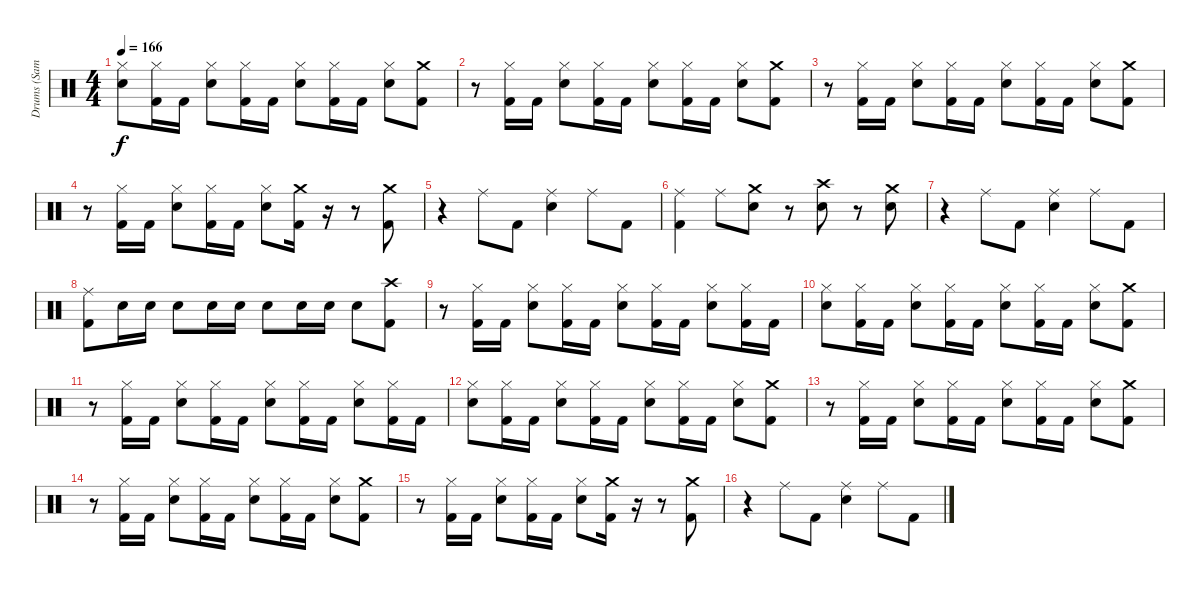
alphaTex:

\track ("Drums (Samuelson)" "Drums (Sam") {instrument percussion}
\staff
\articulation defaults
\ts (4 4)
\tempo 166
\clef neutral
\ks c
("Hi-Hat (closed)" "Electric Snare (hit)").8{dy f} ("Hi-Hat (closed)" "Kick (hit) 2").16 "Kick (hit) 2".16 ("Hi-Hat (closed)" "Electric Snare (hit)").8 ("Hi-Hat (closed)" "Kick (hit) 2").16 "Kick (hit) 2".16 ("Hi-Hat (closed)" "Electric Snare (hit)").8 ("Hi-Hat (closed)" "Kick (hit) 2").16 "Kick (hit) 2".16 ("Hi-Hat (closed)" "Electric Snare (hit)").8 ("Crash medium (hit)" "Kick (hit) 2").8 |
r.8 ("Hi-Hat (closed)" "Kick (hit) 2").16 "Kick (hit) 2".16 ("Hi-Hat (closed)" "Electric Snare (hit)").8 ("Hi-Hat (closed)" "Kick (hit) 2").16 "Kick (hit) 2".16 ("Hi-Hat (closed)" "Electric Snare (hit)").8 ("Hi-Hat (closed)" "Kick (hit) 2").16 "Kick (hit) 2".16 ("Hi-Hat (closed)" "Electric Snare (hit)").8 ("Crash medium (hit)" "Kick (hit) 2").8 |
r.8 ("Hi-Hat (closed)" "Kick (hit) 2").16 "Kick (hit) 2".16 ("Hi-Hat (closed)" "Electric Snare (hit)").8 ("Hi-Hat (closed)" "Kick (hit) 2").16 "Kick (hit) 2".16 ("Hi-Hat (closed)" "Electric Snare (hit)").8 ("Hi-Hat (closed)" "Kick (hit) 2").16 "Kick (hit) 2".16 ("Hi-Hat (closed)" "Electric Snare (hit)").8 ("Crash medium (hit)" "Kick (hit) 2").8 |
r.8 ("Hi-Hat (closed)" "Kick (hit) 2").16 "Kick (hit) 2".16 ("Hi-Hat (closed)" "Electric Snare (hit)").8 ("Hi-Hat (closed)" "Kick (hit) 2").16 "Kick (hit) 2".16 ("Hi-Hat (closed)" "Electric Snare (hit)").8 ("Crash medium (hit)" "Kick (hit) 2").16 r.16 r.8 ("Crash medium (hit)" "Kick (hit) 2").8 |
r.4 "Ride (middle)".8 "Kick (hit) 2".8 ("Ride (middle)" "Electric Snare (hit)").4 "Ride (middle)".8 "Kick (hit) 2".8 |
("Ride (middle)" "Kick (hit) 2").4 "Ride (middle)".8 ("Crash medium (hit)" "Electric Snare (hit)").8 r.8 ("Crash high (hit)" "Electric Snare (hit)").8 r.8 ("Crash medium (hit)" "Electric Snare (hit)").8 |
r.4 "Ride (middle)".8 "Kick (hit) 2".8 ("Ride (middle)" "Electric Snare (hit)").4 "Ride (middle)".8 "Kick (hit) 2".8 |
("Ride (middle)" "Kick (hit) 2").8 "Electric Snare (hit)".16 "Electric Snare (hit)".16 "Electric Snare (hit)".8 "Electric Snare (hit)".16 "Electric Snare (hit)".16 "Electric Snare (hit)".8 "Electric Snare (hit)".16 "Electric Snare (hit)".16 "Electric Snare (hit)".8 ("Crash high (hit)" "Kick (hit) 2").8 |
r.8 ("Hi-Hat (closed)" "Kick (hit) 2").16 "Kick (hit) 2".16 ("Hi-Hat (closed)" "Electric Snare (hit)").8 ("Hi-Hat (closed)" "Kick (hit) 2").16 "Kick (hit) 2".16 ("Hi-Hat (closed)" "Electric Snare (hit)").8 ("Hi-Hat (closed)" "Kick (hit) 2").16 "Kick (hit) 2".16 ("Hi-Hat (closed)" "Electric Snare (hit)").8 ("Hi-Hat (closed)" "Kick (hit) 2").16 "Kick (hit) 2".16 |
("Hi-Hat (closed)" "Electric Snare (hit)").8 ("Hi-Hat (closed)" "Kick (hit) 2").16 "Kick (hit) 2".16 ("Hi-Hat (closed)" "Electric Snare (hit)").8 ("Hi-Hat (closed)" "Kick (hit) 2").16 "Kick (hit) 2".16 ("Hi-Hat (closed)" "Electric Snare (hit)").8 ("Hi-Hat (closed)" "Kick (hit) 2").16 "Kick (hit) 2".16 ("Hi-Hat (closed)" "Electric Snare (hit)").8 ("Crash medium (hit)" "Kick (hit) 2").8 |
r.8 ("Hi-Hat (closed)" "Kick (hit) 2").16 "Kick (hit) 2".16 ("Hi-Hat (closed)" "Electric Snare (hit)").8 ("Hi-Hat (closed)" "Kick (hit) 2").16 "Kick (hit) 2".16 ("Hi-Hat (closed)" "Electric Snare (hit)").8 ("Hi-Hat (closed)" "Kick (hit) 2").16 "Kick (hit) 2".16 ("Hi-Hat (closed)" "Electric Snare (hit)").8 ("Hi-Hat (closed)" "Kick (hit) 2").16 "Kick (hit) 2".16 |
("Hi-Hat (closed)" "Electric Snare (hit)").8 ("Hi-Hat (closed)" "Kick (hit) 2").16 "Kick (hit) 2".16 ("Hi-Hat (closed)" "Electric Snare (hit)").8 ("Hi-Hat (closed)" "Kick (hit) 2").16 "Kick (hit) 2".16 ("Hi-Hat (closed)" "Electric Snare (hit)").8 ("Hi-Hat (closed)" "Kick (hit) 2").16 "Kick (hit) 2".16 ("Hi-Hat (closed)" "Electric Snare (hit)").8 ("Crash medium (hit)" "Kick (hit) 2").8 |
r.8 ("Hi-Hat (closed)" "Kick (hit) 2").16 "Kick (hit) 2".16 ("Hi-Hat (closed)" "Electric Snare (hit)").8 ("Hi-Hat (closed)" "Kick (hit) 2").16 "Kick (hit) 2".16 ("Hi-Hat (closed)" "Electric Snare (hit)").8 ("Hi-Hat (closed)" "Kick (hit) 2").16 "Kick (hit) 2".16 ("Hi-Hat (closed)" "Electric Snare (hit)").8 ("Crash medium (hit)" "Kick (hit) 2").8 |
r.8 ("Hi-Hat (closed)" "Kick (hit) 2").16 "Kick (hit) 2".16 ("Hi-Hat (closed)" "Electric Snare (hit)").8 ("Hi-Hat (closed)" "Kick (hit) 2").16 "Kick (hit) 2".16 ("Hi-Hat (closed)" "Electric Snare (hit)").8 ("Hi-Hat (closed)" "Kick (hit) 2").16 "Kick (hit) 2".16 ("Hi-Hat (closed)" "Electric Snare (hit)").8 ("Crash medium (hit)" "Kick (hit) 2").8 |
r.8 ("Hi-Hat (closed)" "Kick (hit) 2").16 "Kick (hit) 2".16 ("Hi-Hat (closed)" "Electric Snare (hit)").8 ("Hi-Hat (closed)" "Kick (hit) 2").16 "Kick (hit) 2".16 ("Hi-Hat (closed)" "Electric Snare (hit)").8 ("Crash medium (hit)" "Kick (hit) 2").16 r.16 r.8 ("Crash medium (hit)" "Kick (hit) 2").8 |
r.4 "Ride (middle)".8 "Kick (hit) 2".8 ("Ride (middle)" "Electric Snare (hit)").4 "Ride (middle)".8 "Kick (hit) 2".8
